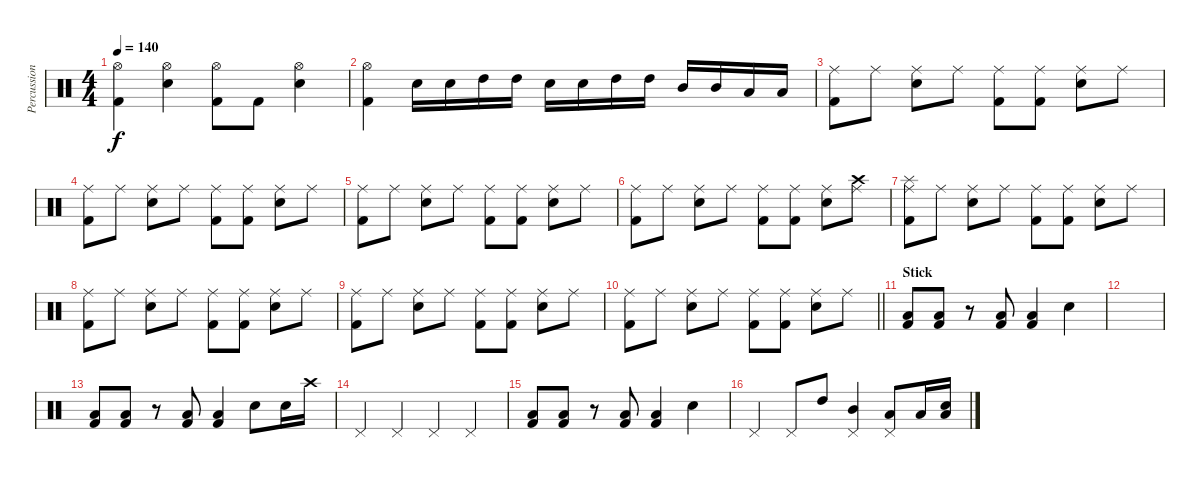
\track ("Percussion" "Percussion") {instrument percussion}
\staff {score}
\articulation defaults
\ts (4 4)
\tempo 140
\clef neutral
\ks c
("Kick (hit) 2" "Hi-Hat (open)").4{dy f} ("Snare (hit) 2" "Hi-Hat (open)").4 ("Kick (hit) 2" "Hi-Hat (open)").8 "Kick (hit) 2".8 ("Snare (hit) 2" "Hi-Hat (open)").4 |
("Kick (hit) 2" "Hi-Hat (open)").4 "Snare (hit) 2".16 "Snare (hit) 2".16 "High Tom (hit)".16 "High Tom (hit)".16 "Snare (hit) 2".16 "Snare (hit) 2".16 "High Tom (hit)".16 "High Tom (hit)".16 "Mid Tom (hit)".16 "Mid Tom (hit)".16 "Low Tom (hit)".16 "Low Tom (hit)".16 |
("Kick (hit) 2" "Ride (middle)").8 "Ride (middle)".8 ("Snare (hit) 2" "Ride (middle)").8 "Ride (middle)".8 ("Kick (hit) 2" "Ride (middle)").8 ("Kick (hit) 2" "Ride (middle)").8 ("Snare (hit) 2" "Ride (middle)").8 "Ride (middle)".8 |
("Kick (hit) 2" "Ride (middle)").8 "Ride (middle)".8 ("Snare (hit) 2" "Ride (middle)").8 "Ride (middle)".8 ("Kick (hit) 2" "Ride (middle)").8 ("Kick (hit) 2" "Ride (middle)").8 ("Snare (hit) 2" "Ride (middle)").8 "Ride (middle)".8 |
("Kick (hit) 2" "Ride (middle)").8 "Ride (middle)".8 ("Snare (hit) 2" "Ride (middle)").8 "Ride (middle)".8 ("Kick (hit) 2" "Ride (middle)").8 ("Kick (hit) 2" "Ride (middle)").8 ("Snare (hit) 2" "Ride (middle)").8 "Ride (middle)".8 |
("Kick (hit) 2" "Ride (middle)").8 "Ride (middle)".8 ("Snare (hit) 2" "Ride (middle)").8 "Ride (middle)".8 ("Kick (hit) 2" "Ride (middle)").8 ("Kick (hit) 2" "Ride (middle)").8 ("Snare (hit) 2" "Ride (middle)").8 ("Crash high (hit)" "Ride (middle)").8 |
("Splash (hit)" "Kick (hit) 2" "Ride (middle)").8 "Ride (middle)".8 ("Snare (hit) 2" "Ride (middle)").8 "Ride (middle)".8 ("Kick (hit) 2" "Ride (middle)").8 ("Kick (hit) 2" "Ride (middle)").8 ("Snare (hit) 2" "Ride (middle)").8 "Ride (middle)".8 |
("Kick (hit) 2" "Ride (middle)").8 "Ride (middle)".8 ("Snare (hit) 2" "Ride (middle)").8 "Ride (middle)".8 ("Kick (hit) 2" "Ride (middle)").8 ("Kick (hit) 2" "Ride (middle)").8 ("Snare (hit) 2" "Ride (middle)").8 "Ride (middle)".8 |
("Kick (hit) 2" "Ride (middle)").8 "Ride (middle)".8 ("Snare (hit) 2" "Ride (middle)").8 "Ride (middle)".8 ("Kick (hit) 2" "Ride (middle)").8 ("Kick (hit) 2" "Ride (middle)").8 ("Snare (hit) 2" "Ride (middle)").8 "Ride (middle)".8 |
\barLineRight lightlight
("Kick (hit) 2" "Ride (middle)").8 "Ride (middle)".8 ("Snare (hit) 2" "Ride (middle)").8 "Ride (middle)".8 ("Kick (hit) 2" "Ride (middle)").8 ("Kick (hit) 2" "Ride (middle)").8 ("Snare (hit) 2" "Ride (middle)").8 "Ride (middle)".8 |
\section ("" "Stick")
("Low Tom (hit)" "Kick (hit) 2").8 ("Low Tom (hit)" "Kick (hit) 2").8 r.8 ("Low Tom (hit)" "Kick (hit) 2").8 ("Low Tom (hit)" "Kick (hit) 2").4 "Snare (hit) 2".4 |
|
("Low Tom (hit)" "Kick (hit) 2").8 ("Low Tom (hit)" "Kick (hit) 2").8 r.8 ("Low Tom (hit)" "Kick (hit) 2").8 ("Low Tom (hit)" "Kick (hit) 2").4 "Snare (hit) 2".8 "Snare (hit) 2".16 "Crash high (hit)".16 |
"Pedal Hi-Hat (hit)".4 "Pedal Hi-Hat (hit)".4 "Pedal Hi-Hat (hit)".4 "Pedal Hi-Hat (hit)".4 |
("Low Tom (hit)" "Kick (hit) 2").8 ("Low Tom (hit)" "Kick (hit) 2").8 r.8 ("Low Tom (hit)" "Kick (hit) 2").8 ("Low Tom (hit)" "Kick (hit) 2").4 "Snare (hit) 2".4 |
"Pedal Hi-Hat (hit)".4 "Pedal Hi-Hat (hit)".8 "High Tom (hit)".8 ("Mid Tom (hit)" "Pedal Hi-Hat (hit)").4 ("Low Tom (hit)" "Pedal Hi-Hat (hit)").8 "Low Tom (hit)".16 ("Low Tom (hit)" "Snare (hit) 2").16
